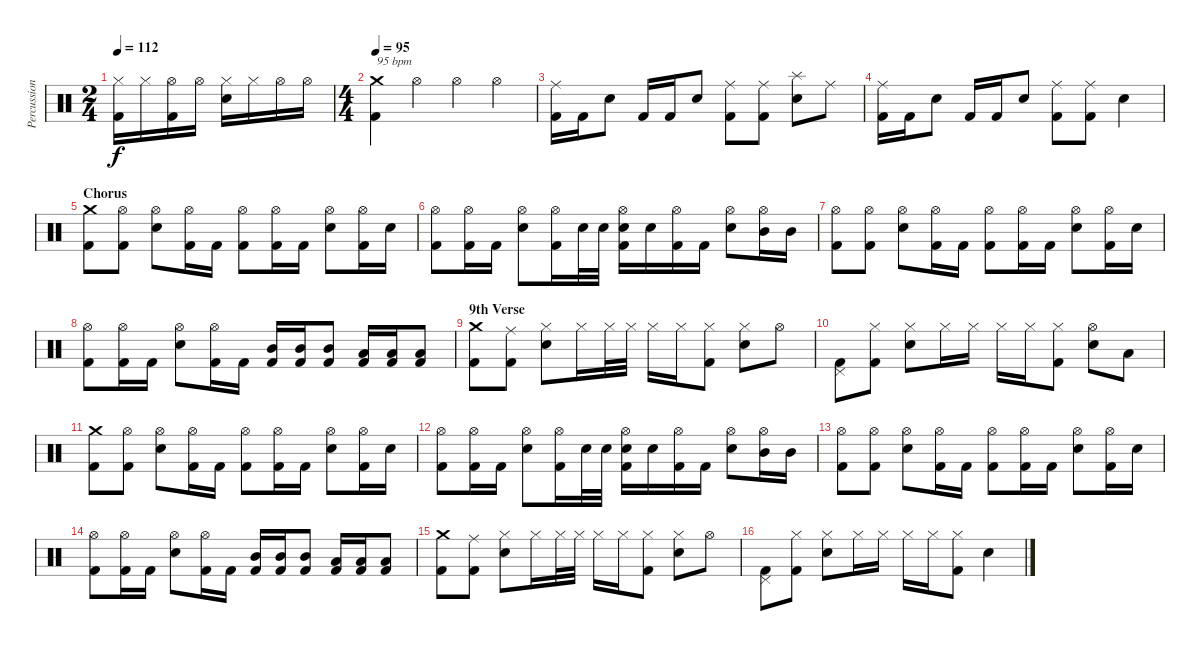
\track ("Percussion" "Percussion") {instrument percussion}
\staff {score}
\articulation defaults
\ts (2 4)
\tempo 112
\clef neutral
\ks c
("Kick (hit) 2" "Hi-Hat (closed)").16{dy f} "Hi-Hat (closed)".16 ("Kick (hit) 2" "Hi-Hat (open)").16 "Hi-Hat (open)".16 ("Electric Snare (hit)" "Hi-Hat (closed)").16 "Hi-Hat (closed)".16 "Hi-Hat (open)".16 "Hi-Hat (open)".16 |
\ts (4 4)
\tempo 95
("Kick (hit) 2" "Crash medium (hit)").4{txt "95 bpm"} "Hi-Hat (open)".4 "Hi-Hat (open)".4 "Hi-Hat (open)".4 |
("Kick (hit) 2" "Ride (middle)").16 "Kick (hit) 2".16 "Electric Snare (hit)".8 "Kick (hit) 2".16 "Kick (hit) 2".16 "Electric Snare (hit)".8 ("Kick (hit) 2" "Ride (middle)").8 ("Kick (hit) 2" "Ride (middle)").8 ("Electric Snare (hit)" "Splash (hit)").8 "Ride (middle)".8 |
("Kick (hit) 2" "Ride (middle)").16 "Kick (hit) 2".16 "Electric Snare (hit)".8 "Kick (hit) 2".16 "Kick (hit) 2".16 "Electric Snare (hit)".8 ("Kick (hit) 2" "Ride (middle)").8 ("Kick (hit) 2" "Ride (middle)").8 "Electric Snare (hit)".4 |
\section ("" "Chorus")
("Kick (hit) 2" "Crash medium (hit)").8 ("Kick (hit) 2" "Hi-Hat (open)").8 ("Electric Snare (hit)" "Hi-Hat (open)").8 ("Kick (hit) 2" "Hi-Hat (open)").16 "Kick (hit) 2".16 ("Kick (hit) 2" "Hi-Hat (open)").8 ("Kick (hit) 2" "Hi-Hat (open)").16 "Kick (hit) 2".16 ("Electric Snare (hit)" "Hi-Hat (open)").8 ("Kick (hit) 2" "Hi-Hat (open)").16 "Electric Snare (hit)".16 |
("Kick (hit) 2" "Hi-Hat (open)").8 ("Kick (hit) 2" "Hi-Hat (open)").16 "Kick (hit) 2".16 ("Electric Snare (hit)" "Hi-Hat (open)").8 ("Kick (hit) 2" "Hi-Hat (open)").16 "Electric Snare (hit)".32 "Electric Snare (hit)".32 ("Kick (hit) 2" "Electric Snare (hit)" "Hi-Hat (open)").16 "Electric Snare (hit)".16 ("Kick (hit) 2" "Hi-Hat (open)").16 "Kick (hit) 2".16 ("Electric Snare (hit)" "Hi-Hat (open)").8 ("Mid Tom (hit)" "Hi-Hat (open)").16 "Mid Tom (hit)".16 |
("Kick (hit) 2" "Hi-Hat (open)").8 ("Kick (hit) 2" "Hi-Hat (open)").8 ("Electric Snare (hit)" "Hi-Hat (open)").8 ("Kick (hit) 2" "Hi-Hat (open)").16 "Kick (hit) 2".16 ("Kick (hit) 2" "Hi-Hat (open)").8 ("Kick (hit) 2" "Hi-Hat (open)").16 "Kick (hit) 2".16 ("Electric Snare (hit)" "Hi-Hat (open)").8 ("Kick (hit) 2" "Hi-Hat (open)").16 "Electric Snare (hit)".16 |
("Kick (hit) 2" "Hi-Hat (open)").8 ("Kick (hit) 2" "Hi-Hat (open)").16 "Kick (hit) 2".16 ("Electric Snare (hit)" "Hi-Hat (open)").8 ("Kick (hit) 2" "Hi-Hat (open)").16 "Kick (hit) 2".16 ("Kick (hit) 2" "Mid Tom (hit)").16 ("Kick (hit) 2" "Mid Tom (hit)").16 ("Kick (hit) 2" "Mid Tom (hit)").8 ("Kick (hit) 2" "Low Tom (hit)").16 ("Kick (hit) 2" "Low Tom (hit)").16 ("Kick (hit) 2" "Low Tom (hit)").8 |
\section ("" "9th Verse")
("Kick (hit) 2" "Crash medium (hit)").8 ("Kick (hit) 2" "Ride (middle)").8 ("Electric Snare (hit)" "Hi-Hat (closed)").8 "Hi-Hat (closed)".16 "Hi-Hat (closed)".32 "Hi-Hat (closed)".32 "Hi-Hat (closed)".16 "Hi-Hat (closed)".16 ("Kick (hit) 2" "Hi-Hat (closed)").8 ("Electric Snare (hit)" "Hi-Hat (closed)").8 "Hi-Hat (open)".8 |
("Kick (hit) 2" "Pedal Hi-Hat (hit)").8 ("Kick (hit) 2" "Hi-Hat (closed)").8 ("Electric Snare (hit)" "Hi-Hat (closed)").8 "Hi-Hat (closed)".16 "Hi-Hat (closed)".16 "Hi-Hat (closed)".16 "Hi-Hat (closed)".16 ("Kick (hit) 2" "Hi-Hat (closed)").8 ("Electric Snare (hit)" "Hi-Hat (open)").8 "Low Tom (hit)".8 |
("Kick (hit) 2" "Crash medium (hit)").8 ("Kick (hit) 2" "Hi-Hat (open)").8 ("Electric Snare (hit)" "Hi-Hat (open)").8 ("Kick (hit) 2" "Hi-Hat (open)").16 "Kick (hit) 2".16 ("Kick (hit) 2" "Hi-Hat (open)").8 ("Kick (hit) 2" "Hi-Hat (open)").16 "Kick (hit) 2".16 ("Electric Snare (hit)" "Hi-Hat (open)").8 ("Kick (hit) 2" "Hi-Hat (open)").16 "Electric Snare (hit)".16 |
("Kick (hit) 2" "Hi-Hat (open)").8 ("Kick (hit) 2" "Hi-Hat (open)").16 "Kick (hit) 2".16 ("Electric Snare (hit)" "Hi-Hat (open)").8 ("Kick (hit) 2" "Hi-Hat (open)").16 "Electric Snare (hit)".32 "Electric Snare (hit)".32 ("Kick (hit) 2" "Electric Snare (hit)" "Hi-Hat (open)").16 "Electric Snare (hit)".16 ("Kick (hit) 2" "Hi-Hat (open)").16 "Kick (hit) 2".16 ("Electric Snare (hit)" "Hi-Hat (open)").8 ("Mid Tom (hit)" "Hi-Hat (open)").16 "Mid Tom (hit)".16 |
("Kick (hit) 2" "Hi-Hat (open)").8 ("Kick (hit) 2" "Hi-Hat (open)").8 ("Electric Snare (hit)" "Hi-Hat (open)").8 ("Kick (hit) 2" "Hi-Hat (open)").16 "Kick (hit) 2".16 ("Kick (hit) 2" "Hi-Hat (open)").8 ("Kick (hit) 2" "Hi-Hat (open)").16 "Kick (hit) 2".16 ("Electric Snare (hit)" "Hi-Hat (open)").8 ("Kick (hit) 2" "Hi-Hat (open)").16 "Electric Snare (hit)".16 |
("Kick (hit) 2" "Hi-Hat (open)").8 ("Kick (hit) 2" "Hi-Hat (open)").16 "Kick (hit) 2".16 ("Electric Snare (hit)" "Hi-Hat (open)").8 ("Kick (hit) 2" "Hi-Hat (open)").16 "Kick (hit) 2".16 ("Kick (hit) 2" "Mid Tom (hit)").16 ("Kick (hit) 2" "Mid Tom (hit)").16 ("Kick (hit) 2" "Mid Tom (hit)").8 ("Kick (hit) 2" "Low Tom (hit)").16 ("Kick (hit) 2" "Low Tom (hit)").16 ("Kick (hit) 2" "Low Tom (hit)").8 |
("Kick (hit) 2" "Crash medium (hit)").8 ("Kick (hit) 2" "Ride (middle)").8 ("Electric Snare (hit)" "Hi-Hat (closed)").8 "Hi-Hat (closed)".16 "Hi-Hat (closed)".32 "Hi-Hat (closed)".32 "Hi-Hat (closed)".16 "Hi-Hat (closed)".16 ("Kick (hit) 2" "Hi-Hat (closed)").8 ("Electric Snare (hit)" "Hi-Hat (closed)").8 "Hi-Hat (open)".8 |
("Kick (hit) 2" "Pedal Hi-Hat (hit)").8 ("Kick (hit) 2" "Hi-Hat (closed)").8 ("Electric Snare (hit)" "Hi-Hat (closed)").8 "Hi-Hat (closed)".16 "Hi-Hat (closed)".16 "Hi-Hat (closed)".16 "Hi-Hat (closed)".16 ("Kick (hit) 2" "Hi-Hat (closed)").8 "Electric Snare (hit)".4
